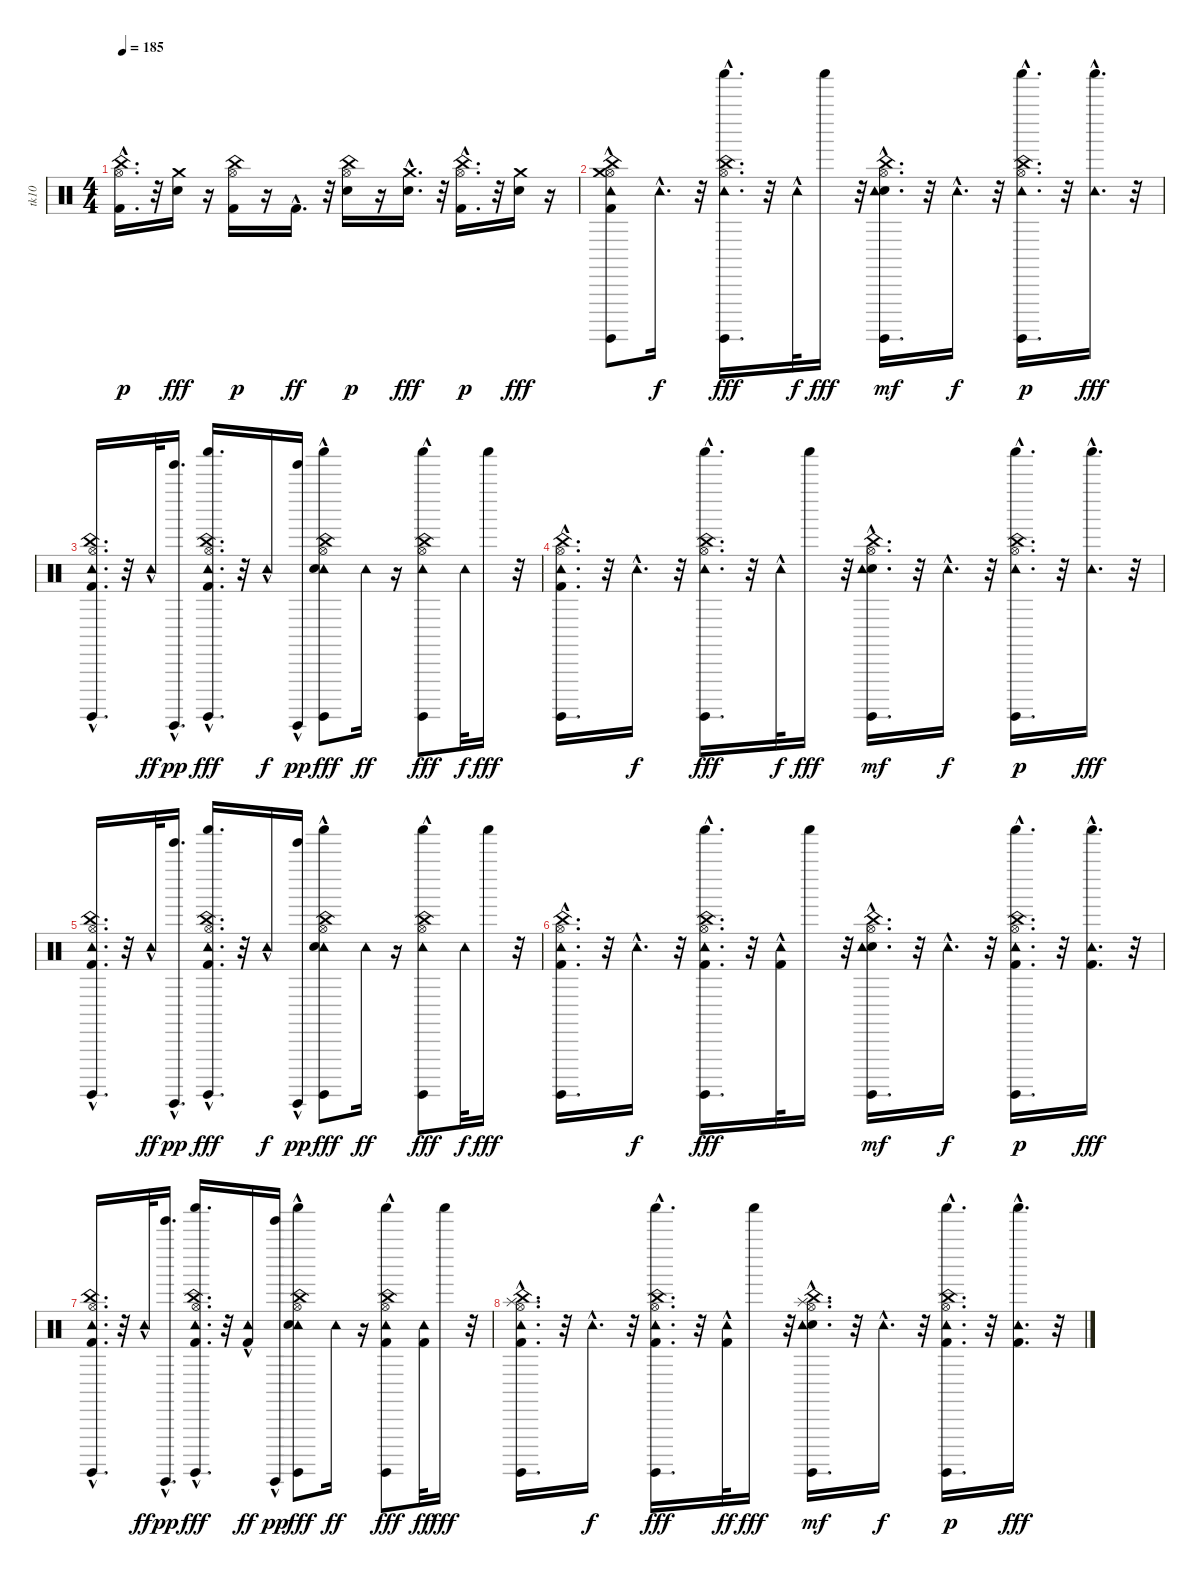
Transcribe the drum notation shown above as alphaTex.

\track ("tk10" "tk10") {instrument percussion}
\staff {score}
\articulation defaults
\ts (4 4)
\tempo 185
\clef neutral
\ks c
("Hi-Hat (open)" "Kick (hit) 2"{hac} "China (hit)").16{d dy p} r.32 ("Electric Snare (hit)" "Crash medium (hit)").16{dy fff} r.16 ("Kick (hit) 2" "Hi-Hat (open)" "China (hit)").16{dy p} r.16 "Kick (hit) 2"{hac}.16{d dy ff} r.32 ("Electric Snare (hit)" "Hi-Hat (open)" "China (hit)").16{dy p} r.16 ("Electric Snare (hit)"{hac} "Crash medium (hit)").16{d dy fff} r.32 ("Kick (hit) 2"{hac} "Hi-Hat (open)" "China (hit)").16{d dy p} r.32 ("Electric Snare (hit)" "Crash medium (hit)").16{dy fff} r.16 |
("Surdo (hit)" "Kick (hit) 2"{hac} "Hi-Hat (open)" "Crash medium (hit)"{hac} "China (hit)" "Tambourine (hit)"{hac}).8 "Tambourine (hit)"{hac}.16{d dy f} r.32 ("Tambourine (hit)"{hac} "Shaker (hit)" "Hi-Hat (open)" "China (hit)" "Surdo (hit)").16{d dy fff} r.32 "Tambourine (hit)"{hac}.32{dy f} "Shaker (hit)".16{dy fff} r.32 ("Electric Snare (hit)"{hac} "Hi-Hat (open)" "China (hit)" "Tambourine (hit)"{hac} "Surdo (hit)").16{d dy mf} r.32 "Tambourine (hit)"{hac}.16{d dy f} r.32 ("Shaker (hit)" "Surdo (hit)" "Tambourine (hit)"{hac} "Hi-Hat (open)" "China (hit)").16{d dy p} r.32 ("Tambourine (hit)"{hac} "Shaker (hit)").16{d dy fff} r.32 |
("Kick (hit) 2"{hac} "Hi-Hat (open)" "China (hit)" "Surdo (hit)" "Tambourine (hit)"{hac}).16{d} r.32 "Tambourine (hit)"{hac}.32{dy ff} ("Guiro (hit)" "Tinkle Bell (hit)"{hac}).16{d dy pp} ("Tambourine (hit)"{hac} "Shaker (hit)" "Kick (hit) 2"{hac} "Hi-Hat (open)" "China (hit)" "Surdo (hit)").16{d dy fff} r.32 "Tambourine (hit)"{hac}.16{dy f} ("Guiro (hit)" "Tinkle Bell (hit)"{hac}).16{dy pp} ("Tambourine (hit)"{hac} "Electric Snare (hit)" "Hi-Hat (open)" "China (hit)" "Shaker (hit)"{hac} "Surdo (hit)").8{dy fff} "Tambourine (hit)".16{dy ff} r.16 ("Tambourine (hit)" "Shaker (hit)" "Hi-Hat (open)" "China (hit)" "Surdo (hit)"{hac}).8{dy fff} "Tambourine (hit)".32{dy f} "Shaker (hit)".16{dy fff} r.32 |
("Kick (hit) 2"{hac} "Hi-Hat (open)" "Surdo (hit)" "China (hit)" "Tambourine (hit)"{hac}).16{d} r.32 "Tambourine (hit)"{hac}.16{d dy f} r.32 ("Tambourine (hit)"{hac} "Shaker (hit)" "Hi-Hat (open)" "China (hit)" "Surdo (hit)").16{d dy fff} r.32 "Tambourine (hit)"{hac}.32{dy f} "Shaker (hit)".16{dy fff} r.32 ("Electric Snare (hit)"{hac} "Hi-Hat (open)" "China (hit)" "Tambourine (hit)"{hac} "Surdo (hit)").16{d dy mf} r.32 "Tambourine (hit)"{hac}.16{d dy f} r.32 ("Shaker (hit)" "Surdo (hit)" "Tambourine (hit)"{hac} "Hi-Hat (open)" "China (hit)").16{d dy p} r.32 ("Tambourine (hit)"{hac} "Shaker (hit)").16{d dy fff} r.32 |
("Kick (hit) 2"{hac} "Hi-Hat (open)" "China (hit)" "Surdo (hit)" "Tambourine (hit)"{hac}).16{d} r.32 "Tambourine (hit)"{hac}.32{dy ff} ("Guiro (hit)" "Tinkle Bell (hit)"{hac}).16{d dy pp} ("Tambourine (hit)"{hac} "Shaker (hit)" "Kick (hit) 2"{hac} "Hi-Hat (open)" "China (hit)" "Surdo (hit)").16{d dy fff} r.32 "Tambourine (hit)"{hac}.16{dy f} ("Guiro (hit)" "Tinkle Bell (hit)"{hac}).16{dy pp} ("Tambourine (hit)"{hac} "Electric Snare (hit)" "Hi-Hat (open)" "China (hit)" "Shaker (hit)"{hac} "Surdo (hit)").8{dy fff} "Tambourine (hit)".16{dy ff} r.16 ("Tambourine (hit)" "Shaker (hit)" "Hi-Hat (open)" "China (hit)" "Surdo (hit)"{hac}).8{dy fff} "Tambourine (hit)".32{dy f} "Shaker (hit)".16{dy fff} r.32 |
("Kick (hit) 2"{hac} "Hi-Hat (open)" "Surdo (hit)" "China (hit)" "Tambourine (hit)"{hac}).16{d} r.32 "Tambourine (hit)"{hac}.16{d dy f} r.32 ("Tambourine (hit)"{hac} "Shaker (hit)" "Kick (hit) 2" "Hi-Hat (open)" "China (hit)" "Surdo (hit)").16{d dy fff} r.32 ("Tambourine (hit)"{hac} "Kick (hit) 2"{hac}).32 "Shaker (hit)".16 r.32 ("Electric Snare (hit)"{hac} "Hi-Hat (open)" "China (hit)" "Tambourine (hit)"{hac} "Surdo (hit)").16{d dy mf} r.32 "Tambourine (hit)"{hac}.16{d dy f} r.32 ("Shaker (hit)" "Surdo (hit)" "Tambourine (hit)"{hac} "Kick (hit) 2" "Hi-Hat (open)" "China (hit)").16{d dy p} r.32 ("Tambourine (hit)"{hac} "Kick (hit) 2" "Shaker (hit)").16{d dy fff} r.32 |
("Hi-Hat (open)" "Kick (hit) 2"{hac} "China (hit)" "Surdo (hit)" "Tambourine (hit)"{hac}).16{d} r.32 "Tambourine (hit)"{hac}.32{dy ff} ("Guiro (hit)" "Tinkle Bell (hit)"{hac}).16{d dy pp} ("Tambourine (hit)"{hac} "Shaker (hit)" "Hi-Hat (open)" "Kick (hit) 2" "China (hit)" "Surdo (hit)").16{d dy fff} r.32 ("Tambourine (hit)"{hac} "Kick (hit) 2"{hac}).16{dy ff} ("Guiro (hit)" "Tinkle Bell (hit)"{hac}).16{dy pp} ("Tambourine (hit)"{hac} "Electric Snare (hit)" "Hi-Hat (open)" "China (hit)" "Shaker (hit)"{hac} "Surdo (hit)").8{dy fff} "Tambourine (hit)".16{dy ff} r.16 ("Tambourine (hit)" "Shaker (hit)" "Kick (hit) 2" "Hi-Hat (open)" "China (hit)" "Surdo (hit)"{hac}).8{dy fff} ("Tambourine (hit)" "Kick (hit) 2").32{dy ff} "Shaker (hit)".16{dy fff} r.32 |
("Hi-Hat (open)" "Splash (hit)" "Surdo (hit)" "Kick (hit) 2"{hac} "China (hit)" "Tambourine (hit)"{hac}).16{d} r.32 "Tambourine (hit)"{hac}.16{d dy f} r.32 ("Tambourine (hit)"{hac} "Shaker (hit)" "Hi-Hat (open)" "Kick (hit) 2" "China (hit)" "Surdo (hit)").16{d dy fff} r.32 ("Tambourine (hit)"{hac} "Kick (hit) 2").32{dy ff} "Shaker (hit)".16{dy fff} r.32 ("Electric Snare (hit)"{hac} "Hi-Hat (open)" "Splash (hit)" "China (hit)" "Tambourine (hit)"{hac} "Surdo (hit)").16{d dy mf} r.32 "Tambourine (hit)"{hac}.16{d dy f} r.32 ("Shaker (hit)" "Surdo (hit)" "Tambourine (hit)"{hac} "Kick (hit) 2" "Hi-Hat (open)" "China (hit)").16{d dy p} r.32 ("Tambourine (hit)"{hac} "Kick (hit) 2" "Shaker (hit)").16{d dy fff} r.32
